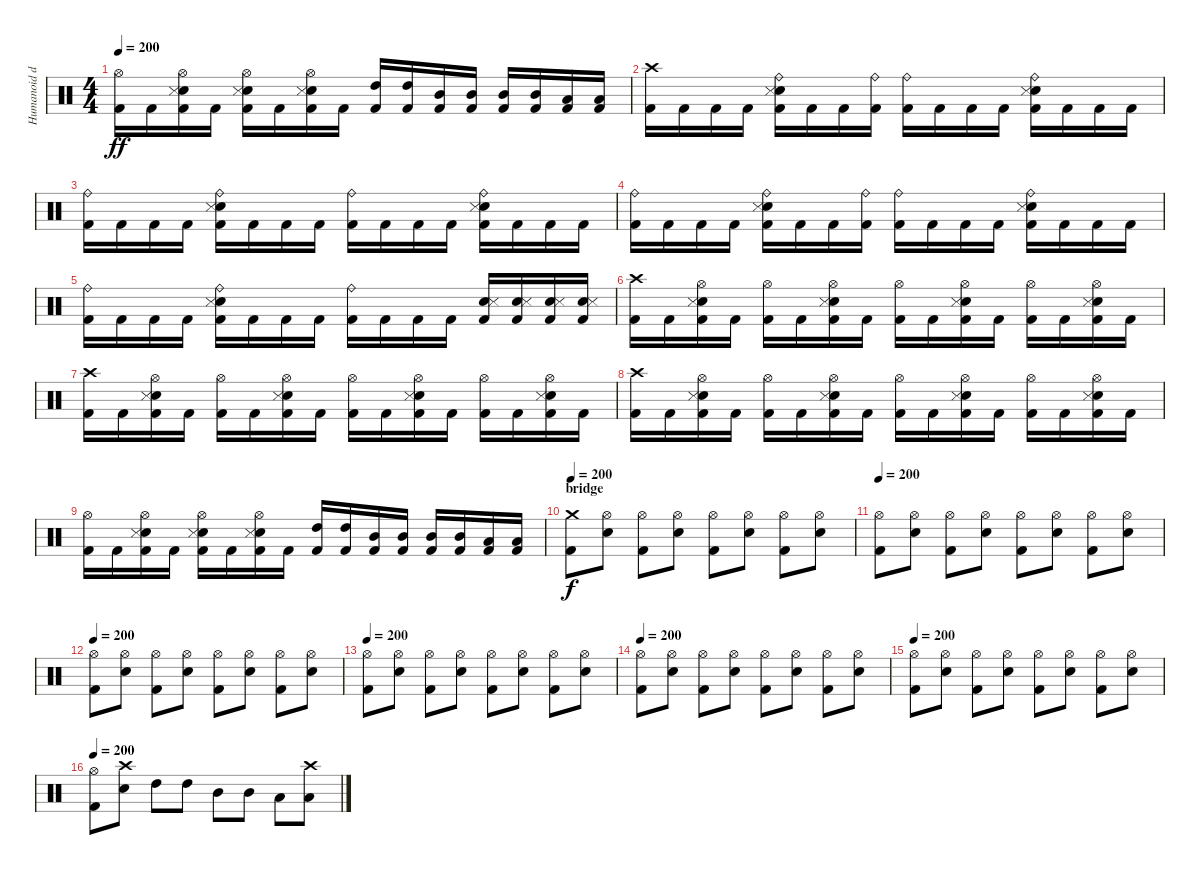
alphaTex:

\track ("Humanoid drum machine" "Humanoid d") {instrument percussion}
\staff {score}
\articulation defaults
\ts (4 4)
\tempo 200
\clef neutral
\ks c
("Hi-Hat (open)" "Kick (hit) 2").16{dy ff} "Kick (hit) 2".16 ("Hi-Hat (open)" "Electric Snare (hit)" "Snare (side stick) 3" "Kick (hit) 2").16 "Kick (hit) 2".16 ("Hi-Hat (open)" "Electric Snare (hit)" "Snare (side stick) 3" "Kick (hit) 2").16 "Kick (hit) 2".16 ("Hi-Hat (open)" "Electric Snare (hit)" "Snare (side stick) 3" "Kick (hit) 2").16 "Kick (hit) 2".16 ("High Tom (hit)" "Kick (hit) 2").16 ("High Tom (hit)" "Kick (hit) 2").16 ("Mid Tom (hit)" "Kick (hit) 2").16 ("Mid Tom (hit)" "Kick (hit) 2").16 ("Mid Tom (hit)" "Kick (hit) 2").16 ("Mid Tom (hit)" "Kick (hit) 2").16 ("Low Tom (hit)" "Kick (hit) 2").16 ("Low Tom (hit)" "Kick (hit) 2").16 |
("Crash high (hit)" "Kick (hit) 2").16 "Kick (hit) 2".16 "Kick (hit) 2".16 "Kick (hit) 2".16 ("Ride (bell)" "Electric Snare (hit)" "Snare (side stick) 3" "Kick (hit) 2").16 "Kick (hit) 2".16 "Kick (hit) 2".16 ("Ride (bell)" "Kick (hit) 2").16 ("Ride (bell)" "Kick (hit) 2").16 "Kick (hit) 2".16 "Kick (hit) 2".16 "Kick (hit) 2".16 ("Ride (bell)" "Electric Snare (hit)" "Snare (side stick) 3" "Kick (hit) 2").16 "Kick (hit) 2".16 "Kick (hit) 2".16 "Kick (hit) 2".16 |
("Ride (bell)" "Kick (hit) 2").16 "Kick (hit) 2".16 "Kick (hit) 2".16 "Kick (hit) 2".16 ("Ride (bell)" "Electric Snare (hit)" "Snare (side stick) 3" "Kick (hit) 2").16 "Kick (hit) 2".16 "Kick (hit) 2".16 "Kick (hit) 2".16 ("Ride (bell)" "Kick (hit) 2").16 "Kick (hit) 2".16 "Kick (hit) 2".16 "Kick (hit) 2".16 ("Ride (bell)" "Electric Snare (hit)" "Snare (side stick) 3" "Kick (hit) 2").16 "Kick (hit) 2".16 "Kick (hit) 2".16 "Kick (hit) 2".16 |
("Ride (bell)" "Kick (hit) 2").16 "Kick (hit) 2".16 "Kick (hit) 2".16 "Kick (hit) 2".16 ("Ride (bell)" "Electric Snare (hit)" "Snare (side stick) 3" "Kick (hit) 2").16 "Kick (hit) 2".16 "Kick (hit) 2".16 ("Ride (bell)" "Kick (hit) 2").16 ("Ride (bell)" "Kick (hit) 2").16 "Kick (hit) 2".16 "Kick (hit) 2".16 "Kick (hit) 2".16 ("Ride (bell)" "Electric Snare (hit)" "Snare (side stick) 3" "Kick (hit) 2").16 "Kick (hit) 2".16 "Kick (hit) 2".16 "Kick (hit) 2".16 |
("Ride (bell)" "Kick (hit) 2").16 "Kick (hit) 2".16 "Kick (hit) 2".16 "Kick (hit) 2".16 ("Ride (bell)" "Electric Snare (hit)" "Snare (side stick) 3" "Kick (hit) 2").16 "Kick (hit) 2".16 "Kick (hit) 2".16 "Kick (hit) 2".16 ("Ride (bell)" "Kick (hit) 2").16 "Kick (hit) 2".16 "Kick (hit) 2".16 "Kick (hit) 2".16 ("Electric Snare (hit)" "Snare (side stick) 3" "Kick (hit) 2").16 ("Electric Snare (hit)" "Snare (side stick) 3" "Kick (hit) 2").16 ("Electric Snare (hit)" "Snare (side stick) 3" "Kick (hit) 2").16 ("Electric Snare (hit)" "Snare (side stick) 3" "Kick (hit) 2").16 |
("Crash high (hit)" "Kick (hit) 2").16 "Kick (hit) 2".16 ("Hi-Hat (open)" "Electric Snare (hit)" "Snare (side stick) 3" "Kick (hit) 2").16 "Kick (hit) 2".16 ("Hi-Hat (open)" "Kick (hit) 2").16 "Kick (hit) 2".16 ("Hi-Hat (open)" "Electric Snare (hit)" "Snare (side stick) 3" "Kick (hit) 2").16 "Kick (hit) 2".16 ("Hi-Hat (open)" "Kick (hit) 2").16 "Kick (hit) 2".16 ("Hi-Hat (open)" "Electric Snare (hit)" "Snare (side stick) 3" "Kick (hit) 2").16 "Kick (hit) 2".16 ("Hi-Hat (open)" "Kick (hit) 2").16 "Kick (hit) 2".16 ("Hi-Hat (open)" "Electric Snare (hit)" "Snare (side stick) 3" "Kick (hit) 2").16 "Kick (hit) 2".16 |
("Crash high (hit)" "Kick (hit) 2").16 "Kick (hit) 2".16 ("Hi-Hat (open)" "Electric Snare (hit)" "Snare (side stick) 3" "Kick (hit) 2").16 "Kick (hit) 2".16 ("Hi-Hat (open)" "Kick (hit) 2").16 "Kick (hit) 2".16 ("Hi-Hat (open)" "Electric Snare (hit)" "Snare (side stick) 3" "Kick (hit) 2").16 "Kick (hit) 2".16 ("Hi-Hat (open)" "Kick (hit) 2").16 "Kick (hit) 2".16 ("Hi-Hat (open)" "Electric Snare (hit)" "Snare (side stick) 3" "Kick (hit) 2").16 "Kick (hit) 2".16 ("Hi-Hat (open)" "Kick (hit) 2").16 "Kick (hit) 2".16 ("Hi-Hat (open)" "Electric Snare (hit)" "Snare (side stick) 3" "Kick (hit) 2").16 "Kick (hit) 2".16 |
("Crash high (hit)" "Kick (hit) 2").16 "Kick (hit) 2".16 ("Hi-Hat (open)" "Electric Snare (hit)" "Snare (side stick) 3" "Kick (hit) 2").16 "Kick (hit) 2".16 ("Hi-Hat (open)" "Kick (hit) 2").16 "Kick (hit) 2".16 ("Hi-Hat (open)" "Electric Snare (hit)" "Snare (side stick) 3" "Kick (hit) 2").16 "Kick (hit) 2".16 ("Hi-Hat (open)" "Kick (hit) 2").16 "Kick (hit) 2".16 ("Hi-Hat (open)" "Electric Snare (hit)" "Snare (side stick) 3" "Kick (hit) 2").16 "Kick (hit) 2".16 ("Hi-Hat (open)" "Kick (hit) 2").16 "Kick (hit) 2".16 ("Hi-Hat (open)" "Electric Snare (hit)" "Snare (side stick) 3" "Kick (hit) 2").16 "Kick (hit) 2".16 |
("Hi-Hat (open)" "Kick (hit) 2").16 "Kick (hit) 2".16 ("Hi-Hat (open)" "Electric Snare (hit)" "Snare (side stick) 3" "Kick (hit) 2").16 "Kick (hit) 2".16 ("Hi-Hat (open)" "Electric Snare (hit)" "Snare (side stick) 3" "Kick (hit) 2").16 "Kick (hit) 2".16 ("Hi-Hat (open)" "Electric Snare (hit)" "Snare (side stick) 3" "Kick (hit) 2").16 "Kick (hit) 2".16 ("High Tom (hit)" "Kick (hit) 2").16 ("High Tom (hit)" "Kick (hit) 2").16 ("Mid Tom (hit)" "Kick (hit) 2").16 ("Mid Tom (hit)" "Kick (hit) 2").16 ("Mid Tom (hit)" "Kick (hit) 2").16 ("Mid Tom (hit)" "Kick (hit) 2").16 ("Low Tom (hit)" "Kick (hit) 2").16 ("Low Tom (hit)" "Kick (hit) 2").16 |
\section ("" "bridge")
\tempo 200
("Crash medium (hit)" "Kick (hit) 2").8{dy f} ("Hi-Hat (open)" "Electric Snare (hit)").8 ("Hi-Hat (open)" "Kick (hit) 2").8 ("Hi-Hat (open)" "Electric Snare (hit)").8 ("Hi-Hat (open)" "Kick (hit) 2").8 ("Hi-Hat (open)" "Electric Snare (hit)").8 ("Hi-Hat (open)" "Kick (hit) 2").8 ("Hi-Hat (open)" "Electric Snare (hit)").8 |
\tempo 200
("Hi-Hat (open)" "Kick (hit) 2").8 ("Hi-Hat (open)" "Electric Snare (hit)").8 ("Hi-Hat (open)" "Kick (hit) 2").8 ("Hi-Hat (open)" "Electric Snare (hit)").8 ("Hi-Hat (open)" "Kick (hit) 2").8 ("Hi-Hat (open)" "Electric Snare (hit)").8 ("Hi-Hat (open)" "Kick (hit) 2").8 ("Hi-Hat (open)" "Electric Snare (hit)").8 |
\tempo 200
("Hi-Hat (open)" "Kick (hit) 2").8 ("Hi-Hat (open)" "Electric Snare (hit)").8 ("Hi-Hat (open)" "Kick (hit) 2").8 ("Hi-Hat (open)" "Electric Snare (hit)").8 ("Hi-Hat (open)" "Kick (hit) 2").8 ("Hi-Hat (open)" "Electric Snare (hit)").8 ("Hi-Hat (open)" "Kick (hit) 2").8 ("Hi-Hat (open)" "Electric Snare (hit)").8 |
\tempo 200
("Hi-Hat (open)" "Kick (hit) 2").8 ("Hi-Hat (open)" "Electric Snare (hit)").8 ("Hi-Hat (open)" "Kick (hit) 2").8 ("Hi-Hat (open)" "Electric Snare (hit)").8 ("Hi-Hat (open)" "Kick (hit) 2").8 ("Hi-Hat (open)" "Electric Snare (hit)").8 ("Hi-Hat (open)" "Kick (hit) 2").8 ("Hi-Hat (open)" "Electric Snare (hit)").8 |
\tempo 200
("Hi-Hat (open)" "Kick (hit) 2").8 ("Hi-Hat (open)" "Electric Snare (hit)").8 ("Hi-Hat (open)" "Kick (hit) 2").8 ("Hi-Hat (open)" "Electric Snare (hit)").8 ("Hi-Hat (open)" "Kick (hit) 2").8 ("Hi-Hat (open)" "Electric Snare (hit)").8 ("Hi-Hat (open)" "Kick (hit) 2").8 ("Hi-Hat (open)" "Electric Snare (hit)").8 |
\tempo 200
("Hi-Hat (open)" "Kick (hit) 2").8 ("Hi-Hat (open)" "Electric Snare (hit)").8 ("Hi-Hat (open)" "Kick (hit) 2").8 ("Hi-Hat (open)" "Electric Snare (hit)").8 ("Hi-Hat (open)" "Kick (hit) 2").8 ("Hi-Hat (open)" "Electric Snare (hit)").8 ("Hi-Hat (open)" "Kick (hit) 2").8 ("Hi-Hat (open)" "Electric Snare (hit)").8 |
\tempo 200
("Hi-Hat (open)" "Kick (hit) 2").8 ("Crash high (hit)" "Electric Snare (hit)").8 "High Tom (hit)".8 "High Tom (hit)".8 "Mid Tom (hit)".8 "Mid Tom (hit)".8 "Low Tom (hit)".8 ("Crash high (hit)" "Low Tom (hit)").8
